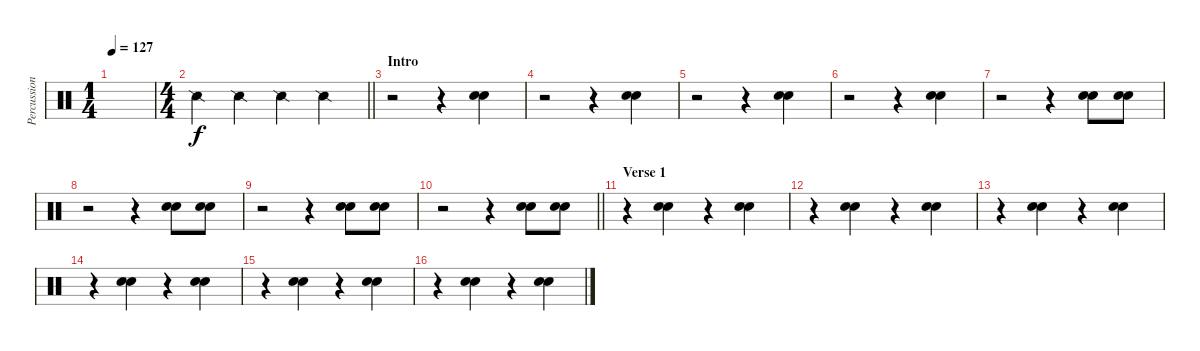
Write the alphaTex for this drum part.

\track ("Percussion" "Percussion") {instrument percussion}
\staff {score}
\articulation defaults
\ts (1 4)
\tempo 127
\clef neutral
\ks c
|
\ts (4 4)
\barLineRight lightlight "Snare (side stick) 2".4 "Snare (side stick) 2".4 "Snare (side stick) 2".4 "Snare (side stick) 2".4
|
\section ("" "Intro")
r.2 r.4 ("Electric Snare (hit)" "Snare (hit) 2").4 |
r.2 r.4 ("Electric Snare (hit)" "Snare (hit) 2").4 |
r.2 r.4 ("Electric Snare (hit)" "Snare (hit) 2").4 |
r.2 r.4 ("Electric Snare (hit)" "Snare (hit) 2").4 |
r.2 r.4 ("Electric Snare (hit)" "Snare (hit) 2").8 ("Electric Snare (hit)" "Snare (hit) 2").8 |
r.2 r.4 ("Electric Snare (hit)" "Snare (hit) 2").8 ("Electric Snare (hit)" "Snare (hit) 2").8 |
r.2 r.4 ("Electric Snare (hit)" "Snare (hit) 2").8 ("Electric Snare (hit)" "Snare (hit) 2").8 |
\barLineRight lightlight
r.2 r.4 ("Electric Snare (hit)" "Snare (hit) 2").8 ("Electric Snare (hit)" "Snare (hit) 2").8 |
\section ("" "Verse 1")
r.4 ("Electric Snare (hit)" "Snare (hit) 2").4 r.4 ("Electric Snare (hit)" "Snare (hit) 2").4 |
r.4 ("Electric Snare (hit)" "Snare (hit) 2").4 r.4 ("Electric Snare (hit)" "Snare (hit) 2").4 |
r.4 ("Electric Snare (hit)" "Snare (hit) 2").4 r.4 ("Electric Snare (hit)" "Snare (hit) 2").4 |
r.4 ("Electric Snare (hit)" "Snare (hit) 2").4 r.4 ("Electric Snare (hit)" "Snare (hit) 2").4 |
r.4 ("Electric Snare (hit)" "Snare (hit) 2").4 r.4 ("Electric Snare (hit)" "Snare (hit) 2").4 |
r.4 ("Electric Snare (hit)" "Snare (hit) 2").4 r.4 ("Electric Snare (hit)" "Snare (hit) 2").4
